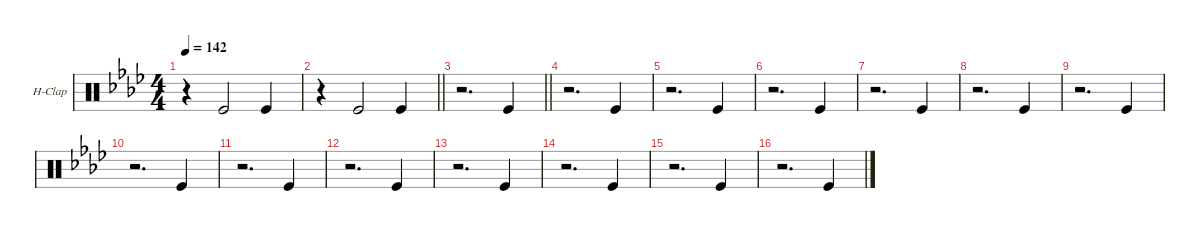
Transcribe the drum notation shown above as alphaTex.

\defaultSystemsLayout 4
\hideDynamics
\bracketExtendMode groupsimilarinstruments
\firstSystemTrackNameOrientation horizontal
\otherSystemsTrackNameOrientation horizontal
\track ("Hand Clap" "H-Clap") {multiBarRest instrument percussion}
\staff {score}
\articulation defaults
\ts (4 4)
\tempo 142
\clef neutral
\ks ab
r.4{dy fff} "Kick (hit)".2 "Kick (hit)".4 |
\barLineRight lightlight
r.4 "Kick (hit)".2 "Kick (hit)".4 |
\barLineRight lightlight
r.2{d} "Kick (hit)".4 |
r.2{d} "Kick (hit)".4 |
r.2{d} "Kick (hit)".4 |
r.2{d} "Kick (hit)".4 |
r.2{d} "Kick (hit)".4 |
r.2{d} "Kick (hit)".4 |
r.2{d} "Kick (hit)".4 |
r.2{d} "Kick (hit)".4 |
r.2{d} "Kick (hit)".4 |
r.2{d} "Kick (hit)".4 |
r.2{d} "Kick (hit)".4 |
r.2{d} "Kick (hit)".4 |
r.2{d} "Kick (hit)".4 |
r.2{d} "Kick (hit)".4
